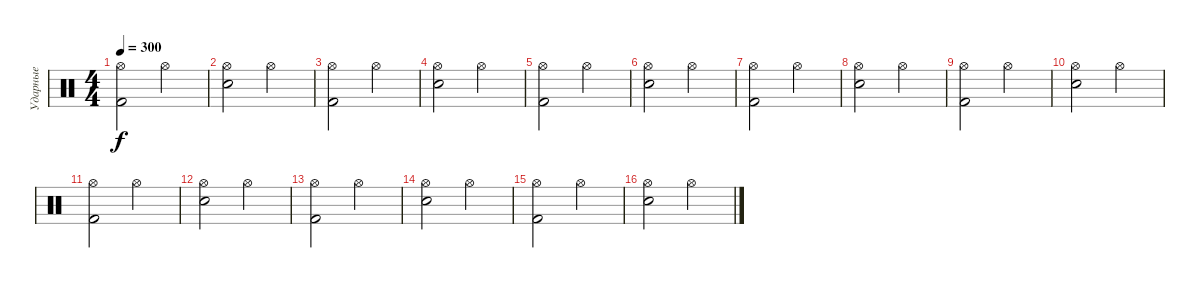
\track ("Ударные" "Ударные") {instrument percussion}
\staff {score}
\articulation defaults
\ts (4 4)
\tempo 300
\clef neutral
\ks c
("Hi-Hat (open)" "Kick (hit) 2").2{dy f} "Hi-Hat (open)".2 |
("Hi-Hat (open)" "Snare (hit) 2").2 "Hi-Hat (open)".2 |
("Hi-Hat (open)" "Kick (hit) 2").2 "Hi-Hat (open)".2 |
("Hi-Hat (open)" "Snare (hit) 2").2 "Hi-Hat (open)".2 |
("Hi-Hat (open)" "Kick (hit) 2").2 "Hi-Hat (open)".2 |
("Hi-Hat (open)" "Snare (hit) 2").2 "Hi-Hat (open)".2 |
("Hi-Hat (open)" "Kick (hit) 2").2 "Hi-Hat (open)".2 |
("Hi-Hat (open)" "Snare (hit) 2").2 "Hi-Hat (open)".2 |
("Hi-Hat (open)" "Kick (hit) 2").2 "Hi-Hat (open)".2 |
("Hi-Hat (open)" "Snare (hit) 2").2 "Hi-Hat (open)".2 |
("Hi-Hat (open)" "Kick (hit) 2").2 "Hi-Hat (open)".2 |
("Hi-Hat (open)" "Snare (hit) 2").2 "Hi-Hat (open)".2 |
("Hi-Hat (open)" "Kick (hit) 2").2 "Hi-Hat (open)".2 |
("Hi-Hat (open)" "Snare (hit) 2").2 "Hi-Hat (open)".2 |
("Hi-Hat (open)" "Kick (hit) 2").2 "Hi-Hat (open)".2 |
("Hi-Hat (open)" "Snare (hit) 2").2 "Hi-Hat (open)".2
